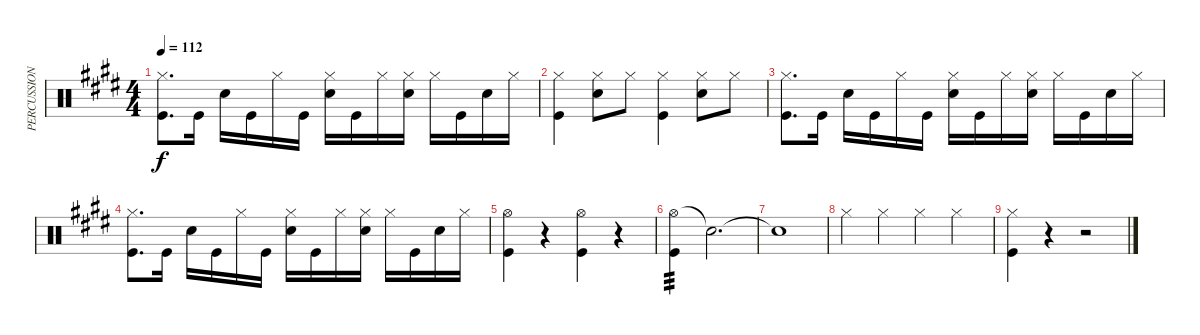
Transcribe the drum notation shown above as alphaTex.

\track ("PERCUSSION" "PERCUSSION") {instrument percussion}
\staff {score}
\articulation defaults
\ts (4 4)
\tempo 112
\clef neutral
\ks c#minor
("Hi-Hat (closed)" "Kick (hit)").8{d dy f} "Kick (hit)".16 "Snare (hit) 2".16 "Kick (hit)".16 "Hi-Hat (closed)".16 "Kick (hit)".16 ("Hi-Hat (closed)" "Snare (hit) 2").16 "Kick (hit)".16 "Hi-Hat (closed)".16 ("Hi-Hat (closed)" "Snare (hit) 2").16 "Hi-Hat (closed)".16 "Kick (hit)".16 "Snare (hit) 2".16 "Hi-Hat (closed)".16 |
("Hi-Hat (closed)" "Kick (hit)").4 ("Hi-Hat (closed)" "Snare (hit) 2").8 "Hi-Hat (closed)".8 ("Hi-Hat (closed)" "Kick (hit)").4 ("Hi-Hat (closed)" "Snare (hit) 2").8 "Hi-Hat (closed)".8 |
("Hi-Hat (closed)" "Kick (hit)").8{d} "Kick (hit)".16 "Snare (hit) 2".16 "Kick (hit)".16 "Hi-Hat (closed)".16 "Kick (hit)".16 ("Hi-Hat (closed)" "Snare (hit) 2").16 "Kick (hit)".16 "Hi-Hat (closed)".16 ("Hi-Hat (closed)" "Snare (hit) 2").16 "Hi-Hat (closed)".16 "Kick (hit)".16 "Snare (hit) 2".16 "Hi-Hat (closed)".16 |
("Hi-Hat (closed)" "Kick (hit)").8{d} "Kick (hit)".16 "Snare (hit) 2".16 "Kick (hit)".16 "Hi-Hat (closed)".16 "Kick (hit)".16 ("Hi-Hat (closed)" "Snare (hit) 2").16 "Kick (hit)".16 "Hi-Hat (closed)".16 ("Hi-Hat (closed)" "Snare (hit) 2").16 "Hi-Hat (closed)".16 "Kick (hit)".16 "Snare (hit) 2".16 "Hi-Hat (closed)".16 |
("Hi-Hat (open)" "Kick (hit)").4 r.4 ("Hi-Hat (open)" "Kick (hit)").4 r.4 |
("Hi-Hat (open)" "Kick (hit)").4{tp 3} "Snare (hit)"{t}.2{d} |
"Snare (hit)"{t}.1 |
"Hi-Hat (closed)".4 "Hi-Hat (closed)".4 "Hi-Hat (closed)".4 "Hi-Hat (closed)".4 |
("Hi-Hat (closed)" "Kick (hit)").4 r.4 r.2
